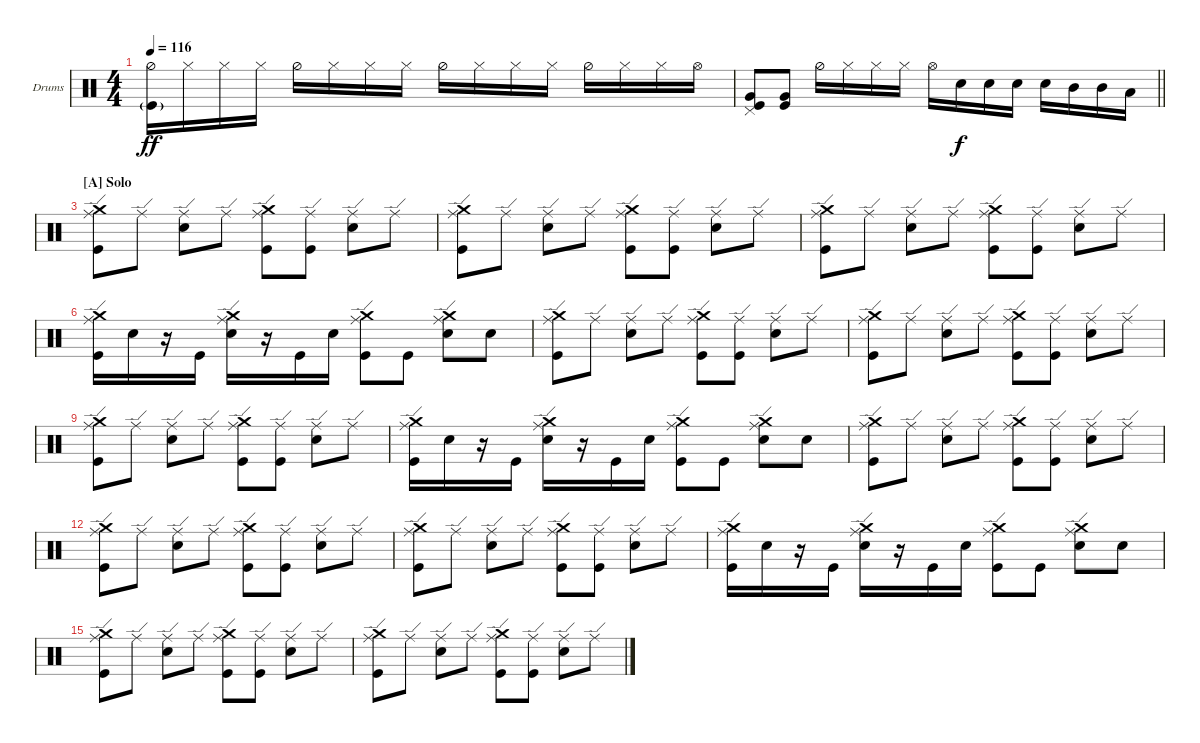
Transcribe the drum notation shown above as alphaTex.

\bracketExtendMode nobrackets
\firstSystemTrackNameOrientation horizontal
\otherSystemsTrackNameOrientation horizontal
\defaultBarNumberDisplay FirstOfSystem
\track ("Drumkit" "Drums") {instrument percussion}
\staff {score}
\articulation defaults
\ts (4 4)
\tempo 116
\clef neutral
\scale
0.487725
\ks c
("Hi-Hat (half)" "Kick (hit)"{g}).16{dy ff} "Hi-Hat (closed)".16 "Hi-Hat (closed)".16 "Hi-Hat (closed)".16 "Hi-Hat (half)".16 "Hi-Hat (closed)".16 "Hi-Hat (closed)".16 "Hi-Hat (closed)".16 "Hi-Hat (half)".16 "Hi-Hat (closed)".16 "Hi-Hat (closed)".16 "Hi-Hat (closed)".16 "Hi-Hat (half)".16 "Hi-Hat (closed)".16 "Hi-Hat (closed)".16 "Hi-Hat (open)".16 |
\scale
0.512275
\barLineRight lightlight
("Pedal Hi-Hat (hit)" "Very Low Tom (hit)" "Kick (hit)").8 ("Very Low Tom (hit)" "Kick (hit)").8 "Hi-Hat (half)".16 "Hi-Hat (closed)".16 "Hi-Hat (closed)".16 "Hi-Hat (closed)".16 "Hi-Hat (open)".16 "Snare (hit) 2".16{dy f} "Snare (hit) 2".16 "Snare (hit) 2".16 "Snare (hit) 2".16 "Mid Tom (hit)".16 "Mid Tom (hit)".16 "Low Tom (hit)".16 |
\section ("A" "Solo")
\scale
0.480769 ("Kick (hit)" "Ride (edge)" "Crash medium (hit)").8 "Ride (edge)".8 ("Snare (hit) 2" "Ride (edge)").8 "Ride (edge)".8 ("Kick (hit)" "Ride (edge)" "Crash medium (hit)").8 ("Kick (hit)" "Ride (edge)").8 ("Snare (hit) 2" "Ride (edge)").8 "Ride (edge)".8 |
\scale
0.519231 ("Kick (hit)" "Ride (edge)" "Crash medium (hit)").8 "Ride (edge)".8 ("Snare (hit) 2" "Ride (edge)").8 "Ride (edge)".8 ("Kick (hit)" "Ride (edge)" "Crash medium (hit)").8 ("Kick (hit)" "Ride (edge)").8 ("Snare (hit) 2" "Ride (edge)").8 "Ride (edge)".8 |
\scale
0.480769 ("Kick (hit)" "Ride (edge)" "Crash medium (hit)").8 "Ride (edge)".8 ("Snare (hit) 2" "Ride (edge)").8 "Ride (edge)".8 ("Kick (hit)" "Ride (edge)" "Crash medium (hit)").8 ("Kick (hit)" "Ride (edge)").8 ("Snare (hit) 2" "Ride (edge)").8 "Ride (edge)".8 |
\scale
0.519231 ("Kick (hit)" "Ride (edge)" "Crash medium (hit)").16 "Snare (hit) 2".16 r.16 "Kick (hit)".16 ("Snare (hit) 2" "Ride (edge)" "Crash medium (hit)").16 r.16 "Kick (hit)".16 "Snare (hit) 2".16 ("Kick (hit)" "Ride (edge)" "Crash medium (hit)").8 "Kick (hit)".8 ("Snare (hit) 2" "Ride (edge)" "Crash medium (hit)").8 "Snare (hit) 2".8 |
\scale
0.514286 ("Kick (hit)" "Ride (edge)" "Crash medium (hit)").8 "Ride (edge)".8 ("Snare (hit) 2" "Ride (edge)").8 "Ride (edge)".8 ("Kick (hit)" "Ride (edge)" "Crash medium (hit)").8 ("Kick (hit)" "Ride (edge)").8 ("Snare (hit) 2" "Ride (edge)").8 "Ride (edge)".8 |
\scale
0.485714 ("Kick (hit)" "Ride (edge)" "Crash medium (hit)").8 "Ride (edge)".8 ("Snare (hit) 2" "Ride (edge)").8 "Ride (edge)".8 ("Kick (hit)" "Ride (edge)" "Crash medium (hit)").8 ("Kick (hit)" "Ride (edge)").8 ("Snare (hit) 2" "Ride (edge)").8 "Ride (edge)".8 |
\scale
0.5 ("Kick (hit)" "Ride (edge)" "Crash medium (hit)").8 "Ride (edge)".8 ("Snare (hit) 2" "Ride (edge)").8 "Ride (edge)".8 ("Kick (hit)" "Ride (edge)" "Crash medium (hit)").8 ("Kick (hit)" "Ride (edge)").8 ("Snare (hit) 2" "Ride (edge)").8 "Ride (edge)".8 |
\scale
0.5 ("Kick (hit)" "Ride (edge)" "Crash medium (hit)").16 "Snare (hit) 2".16 r.16 "Kick (hit)".16 ("Snare (hit) 2" "Ride (edge)" "Crash medium (hit)").16 r.16 "Kick (hit)".16 "Snare (hit) 2".16 ("Kick (hit)" "Ride (edge)" "Crash medium (hit)").8 "Kick (hit)".8 ("Snare (hit) 2" "Ride (edge)" "Crash medium (hit)").8 "Snare (hit) 2".8 |
\scale
0.514286 ("Kick (hit)" "Ride (edge)" "Crash medium (hit)").8 "Ride (edge)".8 ("Snare (hit) 2" "Ride (edge)").8 "Ride (edge)".8 ("Kick (hit)" "Ride (edge)" "Crash medium (hit)").8 ("Kick (hit)" "Ride (edge)").8 ("Snare (hit) 2" "Ride (edge)").8 "Ride (edge)".8 |
\scale
0.485714 ("Kick (hit)" "Ride (edge)" "Crash medium (hit)").8 "Ride (edge)".8 ("Snare (hit) 2" "Ride (edge)").8 "Ride (edge)".8 ("Kick (hit)" "Ride (edge)" "Crash medium (hit)").8 ("Kick (hit)" "Ride (edge)").8 ("Snare (hit) 2" "Ride (edge)").8 "Ride (edge)".8 |
\scale
0.514286 ("Kick (hit)" "Ride (edge)" "Crash medium (hit)").8 "Ride (edge)".8 ("Snare (hit) 2" "Ride (edge)").8 "Ride (edge)".8 ("Kick (hit)" "Ride (edge)" "Crash medium (hit)").8 ("Kick (hit)" "Ride (edge)").8 ("Snare (hit) 2" "Ride (edge)").8 "Ride (edge)".8 |
\scale
0.485714 ("Kick (hit)" "Ride (edge)" "Crash medium (hit)").16 "Snare (hit) 2".16 r.16 "Kick (hit)".16 ("Snare (hit) 2" "Ride (edge)" "Crash medium (hit)").16 r.16 "Kick (hit)".16 "Snare (hit) 2".16 ("Kick (hit)" "Ride (edge)" "Crash medium (hit)").8 "Kick (hit)".8 ("Snare (hit) 2" "Ride (edge)" "Crash medium (hit)").8 "Snare (hit) 2".8 |
\scale
0.514286 ("Kick (hit)" "Ride (edge)" "Crash medium (hit)").8 "Ride (edge)".8 ("Snare (hit) 2" "Ride (edge)").8 "Ride (edge)".8 ("Kick (hit)" "Ride (edge)" "Crash medium (hit)").8 ("Kick (hit)" "Ride (edge)").8 ("Snare (hit) 2" "Ride (edge)").8 "Ride (edge)".8 |
\scale
0.485714 ("Kick (hit)" "Ride (edge)" "Crash medium (hit)").8 "Ride (edge)".8 ("Snare (hit) 2" "Ride (edge)").8 "Ride (edge)".8 ("Kick (hit)" "Ride (edge)" "Crash medium (hit)").8 ("Kick (hit)" "Ride (edge)").8 ("Snare (hit) 2" "Ride (edge)").8 "Ride (edge)".8
